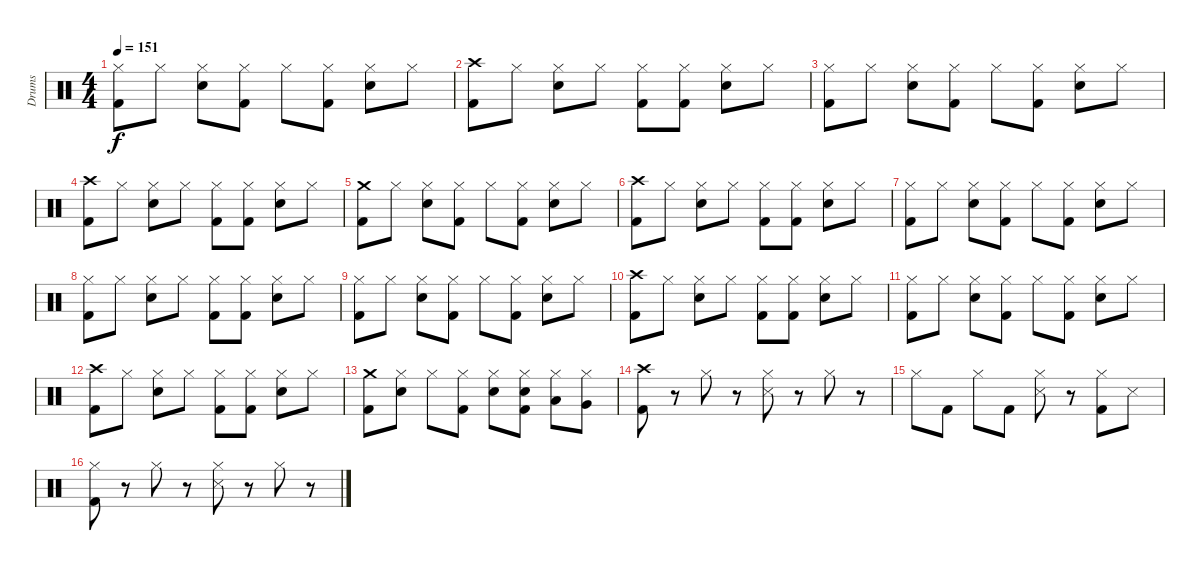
\track ("Drums" "Drums") {instrument percussion}
\staff {score}
\articulation defaults
\ts (4 4)
\tempo 151
\clef neutral
\ks c
("Kick (hit) 2" "Hi-Hat (closed)").8{dy f} "Hi-Hat (closed)".8 ("Electric Snare (hit)" "Hi-Hat (closed)").8 ("Kick (hit) 2" "Hi-Hat (closed)").8 "Hi-Hat (closed)".8 ("Kick (hit) 2" "Hi-Hat (closed)").8 ("Electric Snare (hit)" "Hi-Hat (closed)").8 "Hi-Hat (closed)".8 |
("Crash high (hit)" "Kick (hit) 2").8 "Hi-Hat (closed)".8 ("Electric Snare (hit)" "Hi-Hat (closed)").8 "Hi-Hat (closed)".8 ("Kick (hit) 2" "Hi-Hat (closed)").8 ("Kick (hit) 2" "Hi-Hat (closed)").8 ("Electric Snare (hit)" "Hi-Hat (closed)").8 "Hi-Hat (closed)".8 |
("Kick (hit) 2" "Hi-Hat (closed)").8 "Hi-Hat (closed)".8 ("Electric Snare (hit)" "Hi-Hat (closed)").8 ("Kick (hit) 2" "Hi-Hat (closed)").8 "Hi-Hat (closed)".8 ("Kick (hit) 2" "Hi-Hat (closed)").8 ("Electric Snare (hit)" "Hi-Hat (closed)").8 "Hi-Hat (closed)".8 |
("Crash high (hit)" "Kick (hit) 2").8 "Hi-Hat (closed)".8 ("Electric Snare (hit)" "Hi-Hat (closed)").8 "Hi-Hat (closed)".8 ("Kick (hit) 2" "Hi-Hat (closed)").8 ("Kick (hit) 2" "Hi-Hat (closed)").8 ("Electric Snare (hit)" "Hi-Hat (closed)").8 "Hi-Hat (closed)".8 |
("Kick (hit) 2" "Crash medium (hit)").8 "Hi-Hat (closed)".8 ("Electric Snare (hit)" "Hi-Hat (closed)").8 ("Kick (hit) 2" "Hi-Hat (closed)").8 "Hi-Hat (closed)".8 ("Kick (hit) 2" "Hi-Hat (closed)").8 ("Electric Snare (hit)" "Hi-Hat (closed)").8 "Hi-Hat (closed)".8 |
("Crash high (hit)" "Kick (hit) 2").8 "Hi-Hat (closed)".8 ("Electric Snare (hit)" "Hi-Hat (closed)").8 "Hi-Hat (closed)".8 ("Kick (hit) 2" "Hi-Hat (closed)").8 ("Kick (hit) 2" "Hi-Hat (closed)").8 ("Electric Snare (hit)" "Hi-Hat (closed)").8 "Hi-Hat (closed)".8 |
("Kick (hit) 2" "Hi-Hat (closed)").8 "Hi-Hat (closed)".8 ("Electric Snare (hit)" "Hi-Hat (closed)").8 ("Kick (hit) 2" "Hi-Hat (closed)").8 "Hi-Hat (closed)".8 ("Kick (hit) 2" "Hi-Hat (closed)").8 ("Electric Snare (hit)" "Hi-Hat (closed)").8 "Hi-Hat (closed)".8 |
("Hi-Hat (closed)" "Kick (hit) 2").8 "Hi-Hat (closed)".8 ("Electric Snare (hit)" "Hi-Hat (closed)").8 "Hi-Hat (closed)".8 ("Kick (hit) 2" "Hi-Hat (closed)").8 ("Kick (hit) 2" "Hi-Hat (closed)").8 ("Electric Snare (hit)" "Hi-Hat (closed)").8 "Hi-Hat (closed)".8 |
("Kick (hit) 2" "Hi-Hat (closed)").8 "Hi-Hat (closed)".8 ("Electric Snare (hit)" "Hi-Hat (closed)").8 ("Kick (hit) 2" "Hi-Hat (closed)").8 "Hi-Hat (closed)".8 ("Kick (hit) 2" "Hi-Hat (closed)").8 ("Electric Snare (hit)" "Hi-Hat (closed)").8 "Hi-Hat (closed)".8 |
("Crash high (hit)" "Kick (hit) 2").8 "Hi-Hat (closed)".8 ("Electric Snare (hit)" "Hi-Hat (closed)").8 "Hi-Hat (closed)".8 ("Kick (hit) 2" "Hi-Hat (closed)").8 ("Kick (hit) 2" "Hi-Hat (closed)").8 ("Electric Snare (hit)" "Hi-Hat (closed)").8 "Hi-Hat (closed)".8 |
("Kick (hit) 2" "Hi-Hat (closed)").8 "Hi-Hat (closed)".8 ("Electric Snare (hit)" "Hi-Hat (closed)").8 ("Kick (hit) 2" "Hi-Hat (closed)").8 "Hi-Hat (closed)".8 ("Kick (hit) 2" "Hi-Hat (closed)").8 ("Electric Snare (hit)" "Hi-Hat (closed)").8 "Hi-Hat (closed)".8 |
("Crash high (hit)" "Kick (hit) 2").8 "Hi-Hat (closed)".8 ("Electric Snare (hit)" "Hi-Hat (closed)").8 "Hi-Hat (closed)".8 ("Kick (hit) 2" "Hi-Hat (closed)").8 ("Kick (hit) 2" "Hi-Hat (closed)").8 ("Electric Snare (hit)" "Hi-Hat (closed)").8 "Hi-Hat (closed)".8 |
("Kick (hit) 2" "Crash medium (hit)").8 ("Electric Snare (hit)" "Hi-Hat (closed)").8 "Hi-Hat (closed)".8 ("Kick (hit) 2" "Hi-Hat (closed)").8 ("Electric Snare (hit)" "Hi-Hat (closed)").8 ("Electric Snare (hit)" "Kick (hit) 2" "Hi-Hat (closed)").8 ("Low Tom (hit)" "Hi-Hat (closed)").8 ("Very Low Tom (hit)" "Hi-Hat (closed)").8 |
("Crash high (hit)" "Kick (hit) 2").8 r.8 "Hi-Hat (closed)".8 r.8 ("Metronome (hit)" "Hi-Hat (closed)").8 r.8 "Hi-Hat (closed)".8 r.8 |
"Hi-Hat (closed)".8 "Kick (hit) 2".8 "Hi-Hat (closed)".8 "Kick (hit) 2".8 ("Metronome (hit)" "Hi-Hat (closed)").8 r.8 ("Kick (hit) 2" "Hi-Hat (closed)").8 "Metronome (hit)".8 |
("Kick (hit) 2" "Hi-Hat (closed)").8 r.8 "Hi-Hat (closed)".8 r.8 ("Metronome (hit)" "Hi-Hat (closed)").8 r.8 "Hi-Hat (closed)".8 r.8
